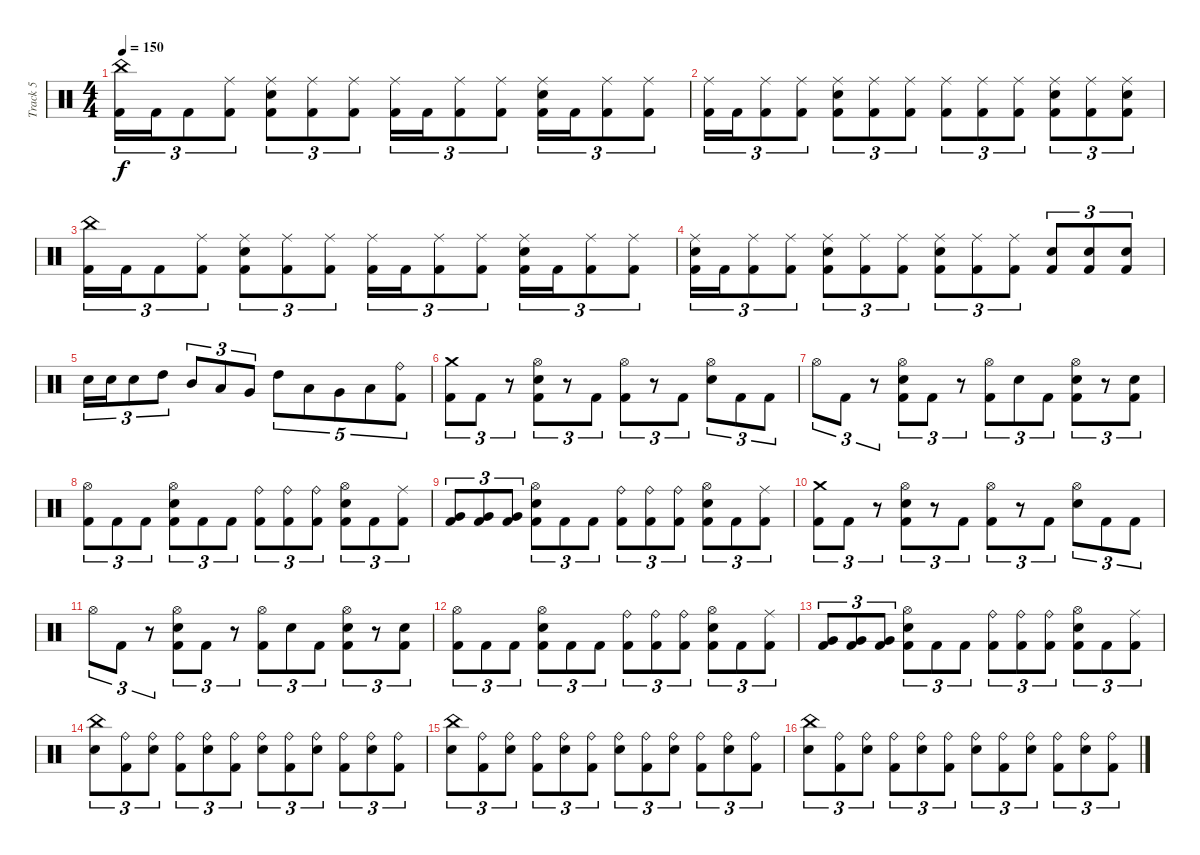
\track ("Track 5" "Track 5") {instrument percussion}
\staff {score}
\articulation defaults
\ts (4 4)
\tempo 150
\clef neutral
\ks c
("China (hit)" "Kick (hit) 2").16{tu (3 2) dy f} "Kick (hit) 2".16{tu (3 2)} "Kick (hit) 2".8{tu (3 2)} ("Ride (middle)" "Kick (hit) 2").8{tu (3 2)} ("Ride (middle)" "Electric Snare (hit)" "Kick (hit) 2").8{tu (3 2)} ("Ride (middle)" "Kick (hit) 2").8{tu (3 2)} ("Ride (middle)" "Kick (hit) 2").8{tu (3 2)} ("Ride (middle)" "Kick (hit) 2").16{tu (3 2)} "Kick (hit) 2".16{tu (3 2)} ("Ride (middle)" "Kick (hit) 2").8{tu (3 2)} ("Ride (middle)" "Kick (hit) 2").8{tu (3 2)} ("Ride (middle)" "Electric Snare (hit)" "Kick (hit) 2").16{tu (3 2)} "Kick (hit) 2".16{tu (3 2)} ("Ride (middle)" "Kick (hit) 2").8{tu (3 2)} ("Ride (middle)" "Kick (hit) 2").8{tu (3 2)} |
("Ride (middle)" "Kick (hit) 2").16{tu (3 2)} "Kick (hit) 2".16{tu (3 2)} ("Ride (middle)" "Kick (hit) 2").8{tu (3 2)} ("Ride (middle)" "Kick (hit) 2").8{tu (3 2)} ("Ride (middle)" "Electric Snare (hit)" "Kick (hit) 2").8{tu (3 2)} ("Ride (middle)" "Kick (hit) 2").8{tu (3 2)} ("Ride (middle)" "Kick (hit) 2").8{tu (3 2)} ("Ride (middle)" "Kick (hit) 2").8{tu (3 2)} ("Ride (middle)" "Kick (hit) 2").8{tu (3 2)} ("Ride (middle)" "Kick (hit) 2").8{tu (3 2)} ("Ride (middle)" "Electric Snare (hit)" "Kick (hit) 2").8{tu (3 2)} ("Ride (middle)" "Kick (hit) 2").8{tu (3 2)} ("Ride (middle)" "Electric Snare (hit)" "Kick (hit) 2").8{tu (3 2)} |
("China (hit)" "Kick (hit) 2").16{tu (3 2)} "Kick (hit) 2".16{tu (3 2)} "Kick (hit) 2".8{tu (3 2)} ("Ride (middle)" "Kick (hit) 2").8{tu (3 2)} ("Ride (middle)" "Electric Snare (hit)" "Kick (hit) 2").8{tu (3 2)} ("Ride (middle)" "Kick (hit) 2").8{tu (3 2)} ("Ride (middle)" "Kick (hit) 2").8{tu (3 2)} ("Ride (middle)" "Kick (hit) 2").16{tu (3 2)} "Kick (hit) 2".16{tu (3 2)} ("Ride (middle)" "Kick (hit) 2").8{tu (3 2)} ("Ride (middle)" "Kick (hit) 2").8{tu (3 2)} ("Ride (middle)" "Electric Snare (hit)" "Kick (hit) 2").16{tu (3 2)} "Kick (hit) 2".16{tu (3 2)} ("Ride (middle)" "Kick (hit) 2").8{tu (3 2)} ("Ride (middle)" "Kick (hit) 2").8{tu (3 2)} |
("Ride (middle)" "Electric Snare (hit)" "Kick (hit) 2").16{tu (3 2)} "Kick (hit) 2".16{tu (3 2)} ("Ride (middle)" "Kick (hit) 2").8{tu (3 2)} ("Ride (middle)" "Kick (hit) 2").8{tu (3 2)} ("Ride (middle)" "Electric Snare (hit)" "Kick (hit) 2").8{tu (3 2)} ("Ride (middle)" "Kick (hit) 2").8{tu (3 2)} ("Ride (middle)" "Kick (hit) 2").8{tu (3 2)} ("Ride (middle)" "Electric Snare (hit)" "Kick (hit) 2").8{tu (3 2)} ("Ride (middle)" "Kick (hit) 2").8{tu (3 2)} ("Ride (middle)" "Kick (hit) 2").8{tu (3 2)} ("Electric Snare (hit)" "Kick (hit) 2").8{tu (3 2)} ("Electric Snare (hit)" "Kick (hit) 2").8{tu (3 2)} ("Electric Snare (hit)" "Kick (hit) 2").8{tu (3 2)} |
"Electric Snare (hit)".16{tu (3 2)} "Electric Snare (hit)".16{tu (3 2)} "Electric Snare (hit)".8{tu (3 2)} "High Tom (hit)".8{tu (3 2)} "Mid Tom (hit)".8{tu (3 2)} "Low Tom (hit)".8{tu (3 2)} "Very Low Tom (hit)".8{tu (3 2)} "High Tom (hit)".8{tu (5 4)} "Low Tom (hit)".8{tu (5 4)} "Very Low Tom (hit)".8{tu (5 4)} "Low Floor Tom (hit)".8{tu (5 4)} ("Ride (bell)" "Kick (hit) 2").8{tu (5 4)} |
("Crash medium (hit)" "Kick (hit) 2").8{tu (3 2)} "Kick (hit) 2".8{tu (3 2)} r.8{tu (3 2)} ("Hi-Hat (open)" "Electric Snare (hit)" "Kick (hit) 2").8{tu (3 2)} r.8{tu (3 2)} "Kick (hit) 2".8{tu (3 2)} ("Hi-Hat (open)" "Kick (hit) 2").8{tu (3 2)} r.8{tu (3 2)} "Kick (hit) 2".8{tu (3 2)} ("Hi-Hat (open)" "Electric Snare (hit)").8{tu (3 2)} "Kick (hit) 2".8{tu (3 2)} "Kick (hit) 2".8{tu (3 2)} |
"Hi-Hat (open)".8{tu (3 2)} "Kick (hit) 2".8{tu (3 2)} r.8{tu (3 2)} ("Hi-Hat (open)" "Electric Snare (hit)" "Kick (hit) 2").8{tu (3 2)} "Kick (hit) 2".8{tu (3 2)} r.8{tu (3 2)} ("Hi-Hat (open)" "Kick (hit) 2").8{tu (3 2)} "Electric Snare (hit)".8{tu (3 2)} "Kick (hit) 2".8{tu (3 2)} ("Hi-Hat (open)" "Electric Snare (hit)" "Kick (hit) 2").8{tu (3 2)} r.8{tu (3 2)} ("Electric Snare (hit)" "Kick (hit) 2").8{tu (3 2)} |
("Hi-Hat (open)" "Kick (hit) 2").8{tu (3 2)} "Kick (hit) 2".8{tu (3 2)} "Kick (hit) 2".8{tu (3 2)} ("Hi-Hat (open)" "Electric Snare (hit)" "Kick (hit) 2").8{tu (3 2)} "Kick (hit) 2".8{tu (3 2)} "Kick (hit) 2".8{tu (3 2)} ("Ride (bell)" "Kick (hit) 2").8{tu (3 2)} ("Ride (bell)" "Kick (hit) 2").8{tu (3 2)} ("Ride (bell)" "Kick (hit) 2").8{tu (3 2)} ("Hi-Hat (open)" "Electric Snare (hit)" "Kick (hit) 2").8{tu (3 2)} "Kick (hit) 2".8{tu (3 2)} ("Ride (middle)" "Kick (hit) 2").8{tu (3 2)} |
("Very Low Tom (hit)" "Kick (hit) 2").8{tu (3 2)} ("Very Low Tom (hit)" "Kick (hit) 2").8{tu (3 2)} ("Very Low Tom (hit)" "Kick (hit) 2").8{tu (3 2)} ("Hi-Hat (open)" "Electric Snare (hit)" "Kick (hit) 2").8{tu (3 2)} "Kick (hit) 2".8{tu (3 2)} "Kick (hit) 2".8{tu (3 2)} ("Ride (bell)" "Kick (hit) 2").8{tu (3 2)} ("Ride (bell)" "Kick (hit) 2").8{tu (3 2)} ("Ride (bell)" "Kick (hit) 2").8{tu (3 2)} ("Hi-Hat (open)" "Electric Snare (hit)" "Kick (hit) 2").8{tu (3 2)} "Kick (hit) 2".8{tu (3 2)} ("Ride (middle)" "Kick (hit) 2").8{tu (3 2)} |
("Crash medium (hit)" "Kick (hit) 2").8{tu (3 2)} "Kick (hit) 2".8{tu (3 2)} r.8{tu (3 2)} ("Hi-Hat (open)" "Electric Snare (hit)" "Kick (hit) 2").8{tu (3 2)} r.8{tu (3 2)} "Kick (hit) 2".8{tu (3 2)} ("Hi-Hat (open)" "Kick (hit) 2").8{tu (3 2)} r.8{tu (3 2)} "Kick (hit) 2".8{tu (3 2)} ("Hi-Hat (open)" "Electric Snare (hit)").8{tu (3 2)} "Kick (hit) 2".8{tu (3 2)} "Kick (hit) 2".8{tu (3 2)} |
"Hi-Hat (open)".8{tu (3 2)} "Kick (hit) 2".8{tu (3 2)} r.8{tu (3 2)} ("Hi-Hat (open)" "Electric Snare (hit)" "Kick (hit) 2").8{tu (3 2)} "Kick (hit) 2".8{tu (3 2)} r.8{tu (3 2)} ("Hi-Hat (open)" "Kick (hit) 2").8{tu (3 2)} "Electric Snare (hit)".8{tu (3 2)} "Kick (hit) 2".8{tu (3 2)} ("Hi-Hat (open)" "Electric Snare (hit)" "Kick (hit) 2").8{tu (3 2)} r.8{tu (3 2)} ("Electric Snare (hit)" "Kick (hit) 2").8{tu (3 2)} |
("Hi-Hat (open)" "Kick (hit) 2").8{tu (3 2)} "Kick (hit) 2".8{tu (3 2)} "Kick (hit) 2".8{tu (3 2)} ("Hi-Hat (open)" "Electric Snare (hit)" "Kick (hit) 2").8{tu (3 2)} "Kick (hit) 2".8{tu (3 2)} "Kick (hit) 2".8{tu (3 2)} ("Ride (bell)" "Kick (hit) 2").8{tu (3 2)} ("Ride (bell)" "Kick (hit) 2").8{tu (3 2)} ("Ride (bell)" "Kick (hit) 2").8{tu (3 2)} ("Hi-Hat (open)" "Electric Snare (hit)" "Kick (hit) 2").8{tu (3 2)} "Kick (hit) 2".8{tu (3 2)} ("Ride (middle)" "Kick (hit) 2").8{tu (3 2)} |
("Very Low Tom (hit)" "Kick (hit) 2").8{tu (3 2)} ("Very Low Tom (hit)" "Kick (hit) 2").8{tu (3 2)} ("Very Low Tom (hit)" "Kick (hit) 2").8{tu (3 2)} ("Hi-Hat (open)" "Electric Snare (hit)" "Kick (hit) 2").8{tu (3 2)} "Kick (hit) 2".8{tu (3 2)} "Kick (hit) 2".8{tu (3 2)} ("Ride (bell)" "Kick (hit) 2").8{tu (3 2)} ("Ride (bell)" "Kick (hit) 2").8{tu (3 2)} ("Ride (bell)" "Kick (hit) 2").8{tu (3 2)} ("Hi-Hat (open)" "Electric Snare (hit)" "Kick (hit) 2").8{tu (3 2)} "Kick (hit) 2".8{tu (3 2)} ("Ride (middle)" "Kick (hit) 2").8{tu (3 2)} |
("China (hit)" "Electric Snare (hit)").8{tu (3 2)} ("Ride (bell)" "Kick (hit) 2").8{tu (3 2)} ("Ride (bell)" "Electric Snare (hit)").8{tu (3 2)} ("Ride (bell)" "Kick (hit) 2").8{tu (3 2)} ("Ride (bell)" "Electric Snare (hit)").8{tu (3 2)} ("Ride (bell)" "Kick (hit) 2").8{tu (3 2)} ("Ride (bell)" "Electric Snare (hit)").8{tu (3 2)} ("Ride (bell)" "Kick (hit) 2").8{tu (3 2)} ("Ride (bell)" "Electric Snare (hit)").8{tu (3 2)} ("Ride (bell)" "Kick (hit) 2").8{tu (3 2)} ("Ride (bell)" "Electric Snare (hit)").8{tu (3 2)} ("Ride (bell)" "Kick (hit) 2").8{tu (3 2)} |
("China (hit)" "Electric Snare (hit)").8{tu (3 2)} ("Ride (bell)" "Kick (hit) 2").8{tu (3 2)} ("Ride (bell)" "Electric Snare (hit)").8{tu (3 2)} ("Ride (bell)" "Kick (hit) 2").8{tu (3 2)} ("Ride (bell)" "Electric Snare (hit)").8{tu (3 2)} ("Ride (bell)" "Kick (hit) 2").8{tu (3 2)} ("Ride (bell)" "Electric Snare (hit)").8{tu (3 2)} ("Ride (bell)" "Kick (hit) 2").8{tu (3 2)} ("Ride (bell)" "Electric Snare (hit)").8{tu (3 2)} ("Ride (bell)" "Kick (hit) 2").8{tu (3 2)} ("Ride (bell)" "Electric Snare (hit)").8{tu (3 2)} ("Ride (bell)" "Kick (hit) 2").8{tu (3 2)} |
("China (hit)" "Electric Snare (hit)").8{tu (3 2)} ("Ride (bell)" "Kick (hit) 2").8{tu (3 2)} ("Ride (bell)" "Electric Snare (hit)").8{tu (3 2)} ("Ride (bell)" "Kick (hit) 2").8{tu (3 2)} ("Ride (bell)" "Electric Snare (hit)").8{tu (3 2)} ("Ride (bell)" "Kick (hit) 2").8{tu (3 2)} ("Ride (bell)" "Electric Snare (hit)").8{tu (3 2)} ("Ride (bell)" "Kick (hit) 2").8{tu (3 2)} ("Ride (bell)" "Electric Snare (hit)").8{tu (3 2)} ("Ride (bell)" "Kick (hit) 2").8{tu (3 2)} ("Ride (bell)" "Electric Snare (hit)").8{tu (3 2)} ("Ride (bell)" "Kick (hit) 2").8{tu (3 2)}
